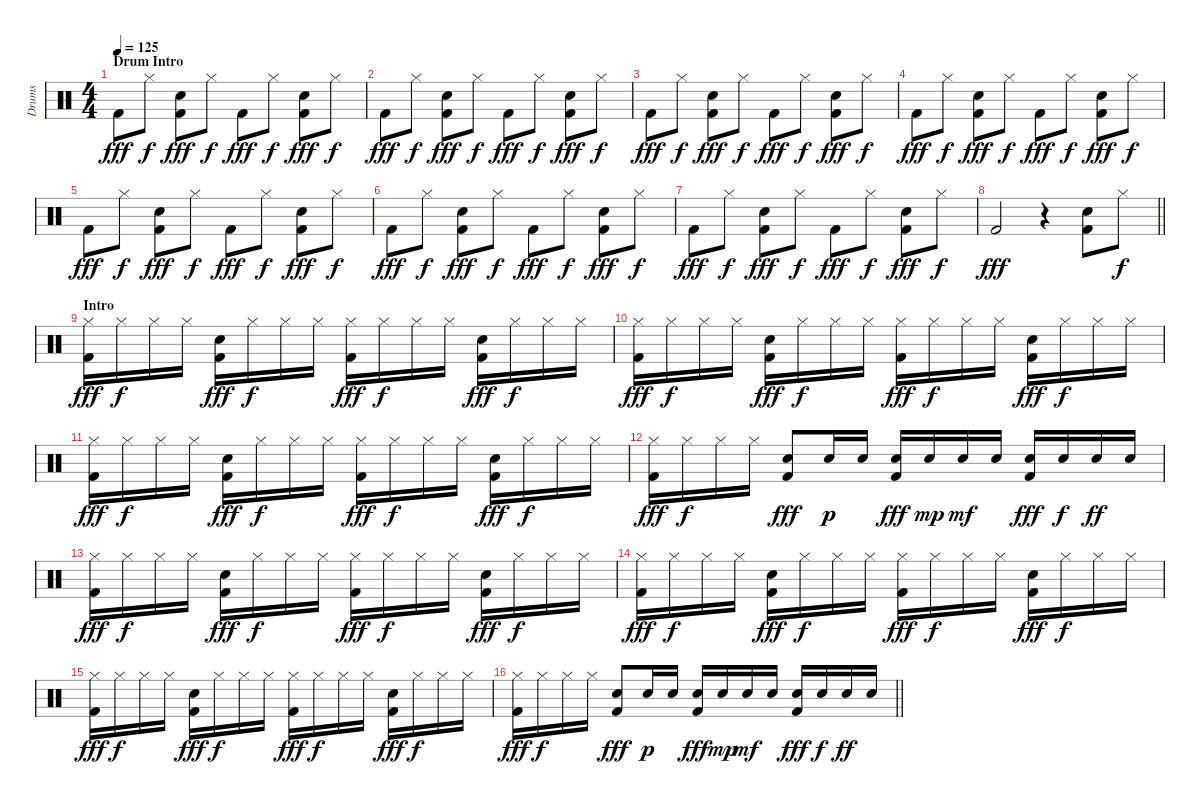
\track ("Drums" "Drums") {instrument percussion}
\staff {score}
\articulation defaults
\ts (4 4)
\section ("" "Drum Intro")
\tempo 125
\clef neutral
\ks c "Kick (hit) 2".8{dy fff} "Hi-Hat (closed)".8{dy f}
("Snare (hit) 2" "Kick (hit) 2").8{dy fff} "Hi-Hat (closed)".8{dy f} "Kick (hit) 2".8{dy fff} "Hi-Hat (closed)".8{dy f} ("Snare (hit) 2" "Kick (hit) 2").8{dy fff} "Hi-Hat (closed)".8{dy f} |
"Kick (hit) 2".8{dy fff} "Hi-Hat (closed)".8{dy f} ("Snare (hit) 2" "Kick (hit) 2").8{dy fff} "Hi-Hat (closed)".8{dy f} "Kick (hit) 2".8{dy fff} "Hi-Hat (closed)".8{dy f} ("Snare (hit) 2" "Kick (hit) 2").8{dy fff} "Hi-Hat (closed)".8{dy f} |
"Kick (hit) 2".8{dy fff} "Hi-Hat (closed)".8{dy f} ("Snare (hit) 2" "Kick (hit) 2").8{dy fff} "Hi-Hat (closed)".8{dy f} "Kick (hit) 2".8{dy fff} "Hi-Hat (closed)".8{dy f} ("Snare (hit) 2" "Kick (hit) 2").8{dy fff} "Hi-Hat (closed)".8{dy f} |
"Kick (hit) 2".8{dy fff} "Hi-Hat (closed)".8{dy f} ("Snare (hit) 2" "Kick (hit) 2").8{dy fff} "Hi-Hat (closed)".8{dy f} "Kick (hit) 2".8{dy fff} "Hi-Hat (closed)".8{dy f} ("Snare (hit) 2" "Kick (hit) 2").8{dy fff} "Hi-Hat (closed)".8{dy f} |
"Kick (hit) 2".8{dy fff} "Hi-Hat (closed)".8{dy f} ("Snare (hit) 2" "Kick (hit) 2").8{dy fff} "Hi-Hat (closed)".8{dy f} "Kick (hit) 2".8{dy fff} "Hi-Hat (closed)".8{dy f} ("Snare (hit) 2" "Kick (hit) 2").8{dy fff} "Hi-Hat (closed)".8{dy f} |
"Kick (hit) 2".8{dy fff} "Hi-Hat (closed)".8{dy f} ("Snare (hit) 2" "Kick (hit) 2").8{dy fff} "Hi-Hat (closed)".8{dy f} "Kick (hit) 2".8{dy fff} "Hi-Hat (closed)".8{dy f} ("Snare (hit) 2" "Kick (hit) 2").8{dy fff} "Hi-Hat (closed)".8{dy f} |
"Kick (hit) 2".8{dy fff} "Hi-Hat (closed)".8{dy f} ("Snare (hit) 2" "Kick (hit) 2").8{dy fff} "Hi-Hat (closed)".8{dy f} "Kick (hit) 2".8{dy fff} "Hi-Hat (closed)".8{dy f} ("Snare (hit) 2" "Kick (hit) 2").8{dy fff} "Hi-Hat (closed)".8{dy f} |
\barLineRight lightlight "Kick (hit) 2".2{dy fff}
r.4 ("Snare (hit) 2" "Kick (hit) 2").8 "Hi-Hat (closed)".8{dy f} |
\section ("" "Intro")
("Hi-Hat (closed)" "Kick (hit) 2").16{dy fff} "Hi-Hat (closed)".16{dy f} "Hi-Hat (closed)".16 "Hi-Hat (closed)".16 ("Snare (hit) 2" "Kick (hit) 2").16{dy fff} "Hi-Hat (closed)".16{dy f} "Hi-Hat (closed)".16 "Hi-Hat (closed)".16 ("Hi-Hat (closed)" "Kick (hit) 2").16{dy fff} "Hi-Hat (closed)".16{dy f} "Hi-Hat (closed)".16 "Hi-Hat (closed)".16 ("Snare (hit) 2" "Kick (hit) 2").16{dy fff} "Hi-Hat (closed)".16{dy f} "Hi-Hat (closed)".16 "Hi-Hat (closed)".16 |
("Hi-Hat (closed)" "Kick (hit) 2").16{dy fff} "Hi-Hat (closed)".16{dy f} "Hi-Hat (closed)".16 "Hi-Hat (closed)".16 ("Snare (hit) 2" "Kick (hit) 2").16{dy fff} "Hi-Hat (closed)".16{dy f} "Hi-Hat (closed)".16 "Hi-Hat (closed)".16 ("Hi-Hat (closed)" "Kick (hit) 2").16{dy fff} "Hi-Hat (closed)".16{dy f} "Hi-Hat (closed)".16 "Hi-Hat (closed)".16 ("Snare (hit) 2" "Kick (hit) 2").16{dy fff} "Hi-Hat (closed)".16{dy f} "Hi-Hat (closed)".16 "Hi-Hat (closed)".16 |
("Hi-Hat (closed)" "Kick (hit) 2").16{dy fff} "Hi-Hat (closed)".16{dy f} "Hi-Hat (closed)".16 "Hi-Hat (closed)".16 ("Snare (hit) 2" "Kick (hit) 2").16{dy fff} "Hi-Hat (closed)".16{dy f} "Hi-Hat (closed)".16 "Hi-Hat (closed)".16 ("Hi-Hat (closed)" "Kick (hit) 2").16{dy fff} "Hi-Hat (closed)".16{dy f} "Hi-Hat (closed)".16 "Hi-Hat (closed)".16 ("Snare (hit) 2" "Kick (hit) 2").16{dy fff} "Hi-Hat (closed)".16{dy f} "Hi-Hat (closed)".16 "Hi-Hat (closed)".16 |
("Hi-Hat (closed)" "Kick (hit) 2").16{dy fff} "Hi-Hat (closed)".16{dy f} "Hi-Hat (closed)".16 "Hi-Hat (closed)".16 ("Snare (hit) 2" "Kick (hit) 2").8{dy fff} "Snare (hit) 2".16{dy p} "Snare (hit) 2".16 ("Snare (hit) 2" "Kick (hit) 2").16{dy fff} "Snare (hit) 2".16{dy mp} "Snare (hit) 2".16{dy mf} "Snare (hit) 2".16 ("Snare (hit) 2" "Kick (hit) 2").16{dy fff} "Snare (hit) 2".16{dy f} "Snare (hit) 2".16{dy ff} "Snare (hit) 2".16 |
("Hi-Hat (closed)" "Kick (hit) 2").16{dy fff} "Hi-Hat (closed)".16{dy f} "Hi-Hat (closed)".16 "Hi-Hat (closed)".16 ("Snare (hit) 2" "Kick (hit) 2").16{dy fff} "Hi-Hat (closed)".16{dy f} "Hi-Hat (closed)".16 "Hi-Hat (closed)".16 ("Hi-Hat (closed)" "Kick (hit) 2").16{dy fff} "Hi-Hat (closed)".16{dy f} "Hi-Hat (closed)".16 "Hi-Hat (closed)".16 ("Snare (hit) 2" "Kick (hit) 2").16{dy fff} "Hi-Hat (closed)".16{dy f} "Hi-Hat (closed)".16 "Hi-Hat (closed)".16 |
("Hi-Hat (closed)" "Kick (hit) 2").16{dy fff} "Hi-Hat (closed)".16{dy f} "Hi-Hat (closed)".16 "Hi-Hat (closed)".16 ("Snare (hit) 2" "Kick (hit) 2").16{dy fff} "Hi-Hat (closed)".16{dy f} "Hi-Hat (closed)".16 "Hi-Hat (closed)".16 ("Hi-Hat (closed)" "Kick (hit) 2").16{dy fff} "Hi-Hat (closed)".16{dy f} "Hi-Hat (closed)".16 "Hi-Hat (closed)".16 ("Snare (hit) 2" "Kick (hit) 2").16{dy fff} "Hi-Hat (closed)".16{dy f} "Hi-Hat (closed)".16 "Hi-Hat (closed)".16 |
("Hi-Hat (closed)" "Kick (hit) 2").16{dy fff} "Hi-Hat (closed)".16{dy f} "Hi-Hat (closed)".16 "Hi-Hat (closed)".16 ("Snare (hit) 2" "Kick (hit) 2").16{dy fff} "Hi-Hat (closed)".16{dy f} "Hi-Hat (closed)".16 "Hi-Hat (closed)".16 ("Hi-Hat (closed)" "Kick (hit) 2").16{dy fff} "Hi-Hat (closed)".16{dy f} "Hi-Hat (closed)".16 "Hi-Hat (closed)".16 ("Snare (hit) 2" "Kick (hit) 2").16{dy fff} "Hi-Hat (closed)".16{dy f} "Hi-Hat (closed)".16 "Hi-Hat (closed)".16 |
\barLineRight lightlight
("Hi-Hat (closed)" "Kick (hit) 2").16{dy fff} "Hi-Hat (closed)".16{dy f} "Hi-Hat (closed)".16 "Hi-Hat (closed)".16 ("Snare (hit) 2" "Kick (hit) 2").8{dy fff} "Snare (hit) 2".16{dy p} "Snare (hit) 2".16 ("Snare (hit) 2" "Kick (hit) 2").16{dy fff} "Snare (hit) 2".16{dy mp} "Snare (hit) 2".16{dy mf} "Snare (hit) 2".16 ("Snare (hit) 2" "Kick (hit) 2").16{dy fff} "Snare (hit) 2".16{dy f} "Snare (hit) 2".16{dy ff} "Snare (hit) 2".16
